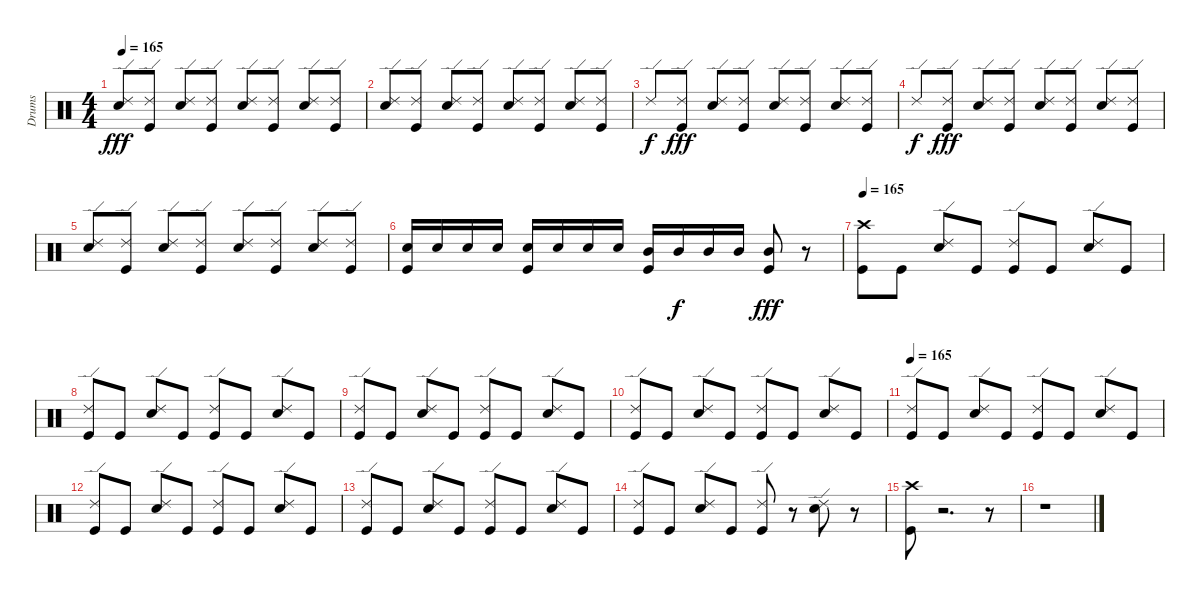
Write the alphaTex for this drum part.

\track ("Drums" "Drums") {instrument percussion}
\staff {score}
\articulation defaults
\ts (4 4)
\tempo 165
\clef neutral
\ks c
("Ride (edge) 2" "Snare (hit) 2").8{dy fff} ("Ride (edge) 2" "Kick (hit)").8 ("Ride (edge) 2" "Snare (hit) 2").8 ("Ride (edge) 2" "Kick (hit)").8 ("Ride (edge) 2" "Snare (hit) 2").8 ("Ride (edge) 2" "Kick (hit)").8 ("Ride (edge) 2" "Snare (hit) 2").8 ("Ride (edge) 2" "Kick (hit)").8 |
("Ride (edge) 2" "Snare (hit) 2").8 ("Ride (edge) 2" "Kick (hit)").8 ("Ride (edge) 2" "Snare (hit) 2").8 ("Ride (edge) 2" "Kick (hit)").8 ("Ride (edge) 2" "Snare (hit) 2").8 ("Ride (edge) 2" "Kick (hit)").8 ("Ride (edge) 2" "Snare (hit) 2").8 ("Ride (edge) 2" "Kick (hit)").8 |
"Ride (edge) 2".8{dy f} ("Ride (edge) 2" "Kick (hit)").8{dy fff} ("Ride (edge) 2" "Snare (hit) 2").8 ("Ride (edge) 2" "Kick (hit)").8 ("Ride (edge) 2" "Snare (hit) 2").8 ("Ride (edge) 2" "Kick (hit)").8 ("Ride (edge) 2" "Snare (hit) 2").8 ("Ride (edge) 2" "Kick (hit)").8 |
"Ride (edge) 2".8{dy f} ("Ride (edge) 2" "Kick (hit)").8{dy fff} ("Ride (edge) 2" "Snare (hit) 2").8 ("Ride (edge) 2" "Kick (hit)").8 ("Ride (edge) 2" "Snare (hit) 2").8 ("Ride (edge) 2" "Kick (hit)").8 ("Ride (edge) 2" "Snare (hit) 2").8 ("Ride (edge) 2" "Kick (hit)").8 |
("Ride (edge) 2" "Snare (hit) 2").8 ("Ride (edge) 2" "Kick (hit)").8 ("Ride (edge) 2" "Snare (hit) 2").8 ("Ride (edge) 2" "Kick (hit)").8 ("Ride (edge) 2" "Snare (hit) 2").8 ("Ride (edge) 2" "Kick (hit)").8 ("Ride (edge) 2" "Snare (hit) 2").8 ("Ride (edge) 2" "Kick (hit)").8 |
("Snare (hit) 2" "Kick (hit)").16 "Snare (hit) 2".16 "Snare (hit) 2".16 "Snare (hit) 2".16 ("Snare (hit) 2" "Kick (hit)").16 "Snare (hit) 2".16 "Snare (hit) 2".16 "Snare (hit) 2".16 ("Mid Tom (hit)" "Kick (hit)").16 "Mid Tom (hit)".16{dy f} "Mid Tom (hit)".16 "Mid Tom (hit)".16 ("Mid Tom (hit)" "Kick (hit)").8{dy fff} r.8 |
\tempo 165
("Crash high (hit)" "Kick (hit)").8 "Kick (hit)".8 ("Ride (edge) 2" "Snare (hit) 2").8 "Kick (hit)".8 ("Ride (edge) 2" "Kick (hit)").8 "Kick (hit)".8 ("Ride (edge) 2" "Snare (hit) 2").8 "Kick (hit)".8 |
("Ride (edge) 2" "Kick (hit)").8 "Kick (hit)".8 ("Ride (edge) 2" "Snare (hit) 2").8 "Kick (hit)".8 ("Ride (edge) 2" "Kick (hit)").8 "Kick (hit)".8 ("Ride (edge) 2" "Snare (hit) 2").8 "Kick (hit)".8 |
("Ride (edge) 2" "Kick (hit)").8 "Kick (hit)".8 ("Ride (edge) 2" "Snare (hit) 2").8 "Kick (hit)".8 ("Ride (edge) 2" "Kick (hit)").8 "Kick (hit)".8 ("Ride (edge) 2" "Snare (hit) 2").8 "Kick (hit)".8 |
("Ride (edge) 2" "Kick (hit)").8 "Kick (hit)".8 ("Ride (edge) 2" "Snare (hit) 2").8 "Kick (hit)".8 ("Ride (edge) 2" "Kick (hit)").8 "Kick (hit)".8 ("Ride (edge) 2" "Snare (hit) 2").8 "Kick (hit)".8 |
\tempo 165
("Ride (edge) 2" "Kick (hit)").8 "Kick (hit)".8 ("Ride (edge) 2" "Snare (hit) 2").8 "Kick (hit)".8 ("Ride (edge) 2" "Kick (hit)").8 "Kick (hit)".8 ("Ride (edge) 2" "Snare (hit) 2").8 "Kick (hit)".8 |
("Ride (edge) 2" "Kick (hit)").8 "Kick (hit)".8 ("Ride (edge) 2" "Snare (hit) 2").8 "Kick (hit)".8 ("Ride (edge) 2" "Kick (hit)").8 "Kick (hit)".8 ("Ride (edge) 2" "Snare (hit) 2").8 "Kick (hit)".8 |
("Ride (edge) 2" "Kick (hit)").8 "Kick (hit)".8 ("Ride (edge) 2" "Snare (hit) 2").8 "Kick (hit)".8 ("Ride (edge) 2" "Kick (hit)").8 "Kick (hit)".8 ("Ride (edge) 2" "Snare (hit) 2").8 "Kick (hit)".8 |
("Ride (edge) 2" "Kick (hit)").8 "Kick (hit)".8 ("Ride (edge) 2" "Snare (hit) 2").8 "Kick (hit)".8 ("Ride (edge) 2" "Kick (hit)").8 r.8 ("Ride (edge) 2" "Snare (hit) 2").8 r.8 |
("Crash high (hit)" "Kick (hit)").8 r.2{d} r.8 |
r.1
